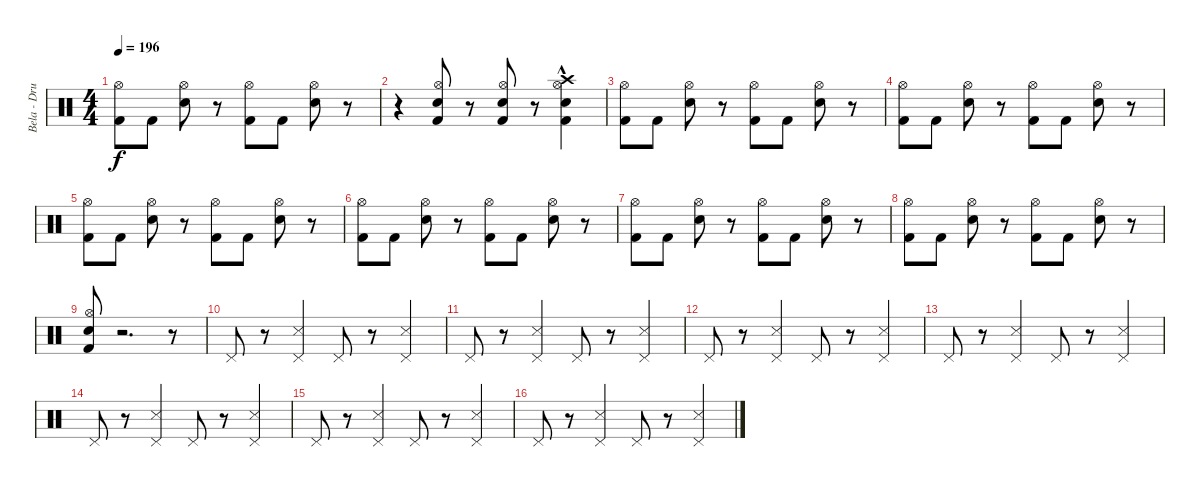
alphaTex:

\track ("Bela - Drums" "Bela - Dru") {instrument percussion}
\staff {score}
\articulation defaults
\ts (4 4)
\tempo 196
\clef neutral
\ks c
("Kick (hit) 2" "Hi-Hat (open)").8{dy f} "Kick (hit) 2".8 ("Electric Snare (hit)" "Hi-Hat (open)").8 r.8 ("Hi-Hat (open)" "Kick (hit) 2").8 "Kick (hit) 2".8 ("Electric Snare (hit)" "Hi-Hat (open)").8 r.8 |
r.4 ("Hi-Hat (open)" "Electric Snare (hit)" "Kick (hit) 2").8 r.8 ("Hi-Hat (open)" "Electric Snare (hit)" "Kick (hit) 2").8 r.8 ("Crash high (hit)"{hac} "Hi-Hat (open)" "Electric Snare (hit)" "Kick (hit) 2").4 |
("Kick (hit) 2" "Hi-Hat (open)").8 "Kick (hit) 2".8 ("Electric Snare (hit)" "Hi-Hat (open)").8 r.8 ("Hi-Hat (open)" "Kick (hit) 2").8 "Kick (hit) 2".8 ("Electric Snare (hit)" "Hi-Hat (open)").8 r.8 |
("Kick (hit) 2" "Hi-Hat (open)").8 "Kick (hit) 2".8 ("Electric Snare (hit)" "Hi-Hat (open)").8 r.8 ("Hi-Hat (open)" "Kick (hit) 2").8 "Kick (hit) 2".8 ("Electric Snare (hit)" "Hi-Hat (open)").8 r.8 |
("Kick (hit) 2" "Hi-Hat (open)").8 "Kick (hit) 2".8 ("Electric Snare (hit)" "Hi-Hat (open)").8 r.8 ("Hi-Hat (open)" "Kick (hit) 2").8 "Kick (hit) 2".8 ("Electric Snare (hit)" "Hi-Hat (open)").8 r.8 |
("Kick (hit) 2" "Hi-Hat (open)").8 "Kick (hit) 2".8 ("Electric Snare (hit)" "Hi-Hat (open)").8 r.8 ("Hi-Hat (open)" "Kick (hit) 2").8 "Kick (hit) 2".8 ("Electric Snare (hit)" "Hi-Hat (open)").8 r.8 |
("Kick (hit) 2" "Hi-Hat (open)").8 "Kick (hit) 2".8 ("Electric Snare (hit)" "Hi-Hat (open)").8 r.8 ("Hi-Hat (open)" "Kick (hit) 2").8 "Kick (hit) 2".8 ("Electric Snare (hit)" "Hi-Hat (open)").8 r.8 |
("Kick (hit) 2" "Hi-Hat (open)").8 "Kick (hit) 2".8 ("Electric Snare (hit)" "Hi-Hat (open)").8 r.8 ("Hi-Hat (open)" "Kick (hit) 2").8 "Kick (hit) 2".8 ("Electric Snare (hit)" "Hi-Hat (open)").8 r.8 |
("Kick (hit) 2" "Hi-Hat (open)" "Electric Snare (hit)").8 r.2{d} r.8 |
"Pedal Hi-Hat (hit)".8 r.8 ("Pedal Hi-Hat (hit)" "Snare (side stick) 3").4 "Pedal Hi-Hat (hit)".8 r.8 ("Pedal Hi-Hat (hit)" "Snare (side stick) 3").4 |
"Pedal Hi-Hat (hit)".8 r.8 ("Pedal Hi-Hat (hit)" "Snare (side stick) 3").4 "Pedal Hi-Hat (hit)".8 r.8 ("Pedal Hi-Hat (hit)" "Snare (side stick) 3").4 |
"Pedal Hi-Hat (hit)".8 r.8 ("Pedal Hi-Hat (hit)" "Snare (side stick) 3").4 "Pedal Hi-Hat (hit)".8 r.8 ("Pedal Hi-Hat (hit)" "Snare (side stick) 3").4 |
"Pedal Hi-Hat (hit)".8 r.8 ("Pedal Hi-Hat (hit)" "Snare (side stick) 3").4 "Pedal Hi-Hat (hit)".8 r.8 ("Snare (side stick) 3" "Pedal Hi-Hat (hit)").4 |
"Pedal Hi-Hat (hit)".8 r.8 ("Snare (side stick) 3" "Pedal Hi-Hat (hit)").4 "Pedal Hi-Hat (hit)".8 r.8 ("Pedal Hi-Hat (hit)" "Snare (side stick) 3").4 |
"Pedal Hi-Hat (hit)".8 r.8 ("Snare (side stick) 3" "Pedal Hi-Hat (hit)").4 "Pedal Hi-Hat (hit)".8 r.8 ("Pedal Hi-Hat (hit)" "Snare (side stick) 3").4 |
"Pedal Hi-Hat (hit)".8 r.8 ("Snare (side stick) 3" "Pedal Hi-Hat (hit)").4 "Pedal Hi-Hat (hit)".8 r.8 ("Snare (side stick) 3" "Pedal Hi-Hat (hit)").4
